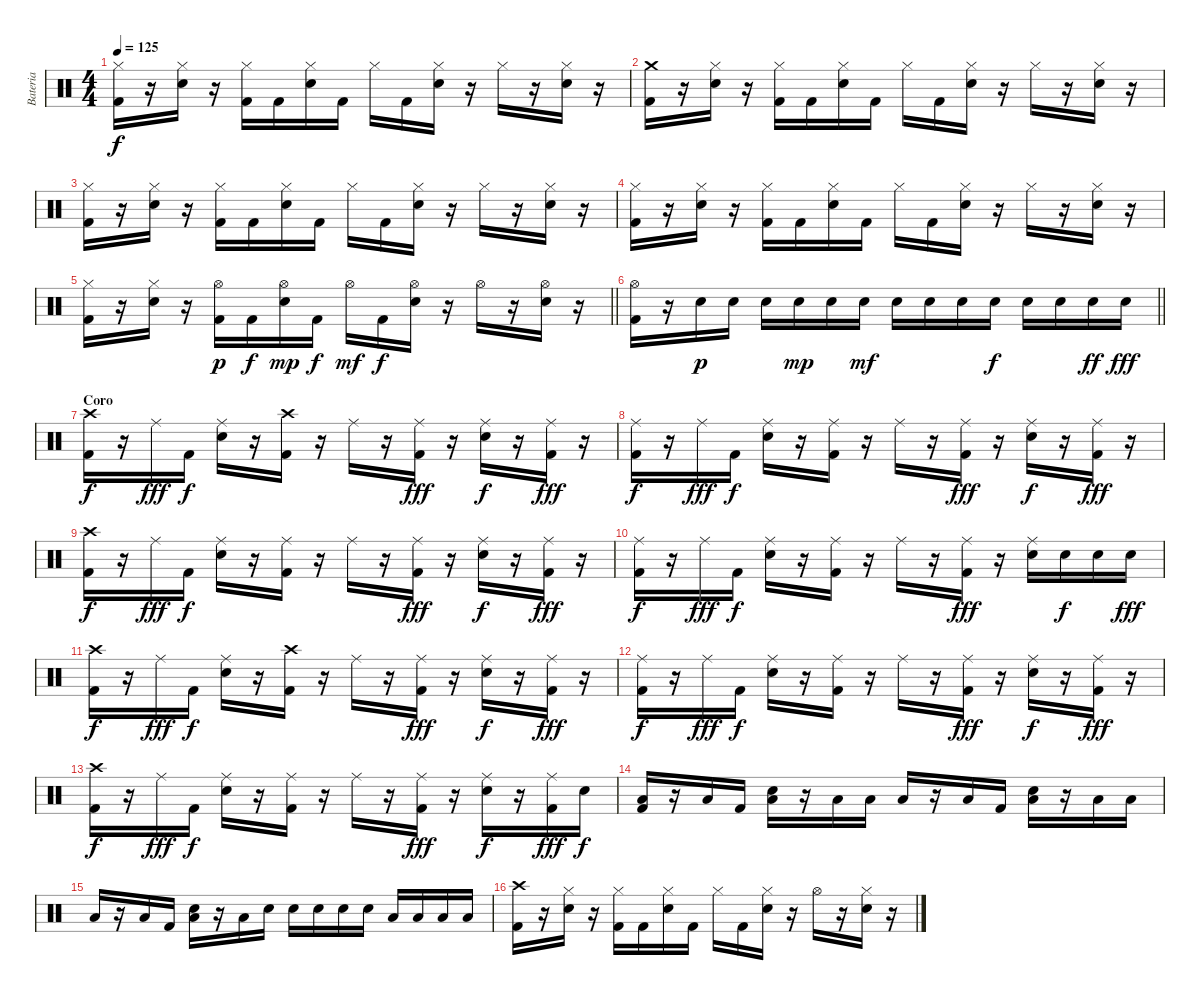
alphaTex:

\track ("Bateria" "Bateria") {instrument percussion}
\staff {score}
\articulation defaults
\ts (4 4)
\tempo 125
\clef neutral
\ks c
("Hi-Hat (closed)" "Kick (hit) 2").16{dy f} r.16 ("Hi-Hat (closed)" "Electric Snare (hit)").16 r.16 ("Hi-Hat (closed)" "Kick (hit) 2").16 "Kick (hit) 2".16 ("Hi-Hat (closed)" "Electric Snare (hit)").16 "Kick (hit) 2".16 "Hi-Hat (closed)".16 "Kick (hit) 2".16 ("Hi-Hat (closed)" "Electric Snare (hit)").16 r.16 "Hi-Hat (closed)".16 r.16 ("Hi-Hat (closed)" "Electric Snare (hit)").16 r.16 |
("Crash medium (hit)" "Kick (hit) 2").16 r.16 ("Hi-Hat (closed)" "Electric Snare (hit)").16 r.16 ("Hi-Hat (closed)" "Kick (hit) 2").16 "Kick (hit) 2".16 ("Hi-Hat (closed)" "Electric Snare (hit)").16 "Kick (hit) 2".16 "Hi-Hat (closed)".16 "Kick (hit) 2".16 ("Hi-Hat (closed)" "Electric Snare (hit)").16 r.16 "Hi-Hat (closed)".16 r.16 ("Hi-Hat (closed)" "Electric Snare (hit)").16 r.16 |
("Hi-Hat (closed)" "Kick (hit) 2").16 r.16 ("Hi-Hat (closed)" "Electric Snare (hit)").16 r.16 ("Hi-Hat (closed)" "Kick (hit) 2").16 "Kick (hit) 2".16 ("Hi-Hat (closed)" "Electric Snare (hit)").16 "Kick (hit) 2".16 "Hi-Hat (closed)".16 "Kick (hit) 2".16 ("Hi-Hat (closed)" "Electric Snare (hit)").16 r.16 "Hi-Hat (closed)".16 r.16 ("Hi-Hat (closed)" "Electric Snare (hit)").16 r.16 |
("Hi-Hat (closed)" "Kick (hit) 2").16 r.16 ("Hi-Hat (closed)" "Electric Snare (hit)").16 r.16 ("Hi-Hat (closed)" "Kick (hit) 2").16 "Kick (hit) 2".16 ("Hi-Hat (closed)" "Electric Snare (hit)").16 "Kick (hit) 2".16 "Hi-Hat (closed)".16 "Kick (hit) 2".16 ("Hi-Hat (closed)" "Electric Snare (hit)").16 r.16 "Hi-Hat (closed)".16 r.16 ("Hi-Hat (closed)" "Electric Snare (hit)").16 r.16 |
\barLineRight lightlight
("Hi-Hat (closed)" "Kick (hit) 2").16 r.16 ("Hi-Hat (closed)" "Electric Snare (hit)").16 r.16 ("Hi-Hat (open)" "Kick (hit) 2").16{dy p} "Kick (hit) 2".16{dy f} ("Hi-Hat (open)" "Electric Snare (hit)").16{dy mp} "Kick (hit) 2".16{dy f} "Hi-Hat (open)".16{dy mf} "Kick (hit) 2".16{dy f} ("Hi-Hat (open)" "Electric Snare (hit)").16 r.16 "Hi-Hat (open)".16 r.16 ("Hi-Hat (open)" "Electric Snare (hit)").16 r.16 |
\barLineRight lightlight
("Hi-Hat (open)" "Kick (hit) 2").16 r.16 "Electric Snare (hit)".16{dy p} "Electric Snare (hit)".16 "Electric Snare (hit)".16 "Electric Snare (hit)".16{dy mp} "Electric Snare (hit)".16 "Electric Snare (hit)".16{dy mf} "Electric Snare (hit)".16 "Electric Snare (hit)".16 "Electric Snare (hit)".16 "Electric Snare (hit)".16{dy f} "Electric Snare (hit)".16 "Electric Snare (hit)".16 "Electric Snare (hit)".16{dy ff} "Electric Snare (hit)".16{dy fff} |
\section ("" "Coro")
("Crash high (hit)" "Kick (hit) 2").16{dy f} r.16 "Ride (middle)".16{dy fff} "Kick (hit) 2".16{dy f} ("Ride (middle)" "Electric Snare (hit)").16 r.16 ("Crash high (hit)" "Kick (hit) 2").16 r.16 "Ride (middle)".16 r.16 ("Ride (middle)" "Kick (hit) 2").16{dy fff} r.16 ("Ride (middle)" "Electric Snare (hit)").16{dy f} r.16 ("Ride (middle)" "Kick (hit) 2").16{dy fff} r.16 |
("Ride (middle)" "Kick (hit) 2").16{dy f} r.16 "Ride (middle)".16{dy fff} "Kick (hit) 2".16{dy f} ("Ride (middle)" "Electric Snare (hit)").16 r.16 ("Ride (middle)" "Kick (hit) 2").16 r.16 "Ride (middle)".16 r.16 ("Ride (middle)" "Kick (hit) 2").16{dy fff} r.16 ("Ride (middle)" "Electric Snare (hit)").16{dy f} r.16 ("Ride (middle)" "Kick (hit) 2").16{dy fff} r.16 |
("Crash high (hit)" "Kick (hit) 2").16{dy f} r.16 "Ride (middle)".16{dy fff} "Kick (hit) 2".16{dy f} ("Ride (middle)" "Electric Snare (hit)").16 r.16 ("Ride (middle)" "Kick (hit) 2").16 r.16 "Ride (middle)".16 r.16 ("Ride (middle)" "Kick (hit) 2").16{dy fff} r.16 ("Ride (middle)" "Electric Snare (hit)").16{dy f} r.16 ("Ride (middle)" "Kick (hit) 2").16{dy fff} r.16 |
("Ride (middle)" "Kick (hit) 2").16{dy f} r.16 "Ride (middle)".16{dy fff} "Kick (hit) 2".16{dy f} ("Ride (middle)" "Electric Snare (hit)").16 r.16 ("Ride (middle)" "Kick (hit) 2").16 r.16 "Ride (middle)".16 r.16 ("Ride (middle)" "Kick (hit) 2").16{dy fff} r.16 ("Ride (middle)" "Electric Snare (hit)").16 "Electric Snare (hit)".16{dy f} "Electric Snare (hit)".16 "Electric Snare (hit)".16{dy fff} |
("Crash high (hit)" "Kick (hit) 2").16{dy f} r.16 "Ride (middle)".16{dy fff} "Kick (hit) 2".16{dy f} ("Ride (middle)" "Electric Snare (hit)").16 r.16 ("Crash high (hit)" "Kick (hit) 2").16 r.16 "Ride (middle)".16 r.16 ("Ride (middle)" "Kick (hit) 2").16{dy fff} r.16 ("Ride (middle)" "Electric Snare (hit)").16{dy f} r.16 ("Ride (middle)" "Kick (hit) 2").16{dy fff} r.16 |
("Ride (middle)" "Kick (hit) 2").16{dy f} r.16 "Ride (middle)".16{dy fff} "Kick (hit) 2".16{dy f} ("Ride (middle)" "Electric Snare (hit)").16 r.16 ("Ride (middle)" "Kick (hit) 2").16 r.16 "Ride (middle)".16 r.16 ("Ride (middle)" "Kick (hit) 2").16{dy fff} r.16 ("Ride (middle)" "Electric Snare (hit)").16{dy f} r.16 ("Ride (middle)" "Kick (hit) 2").16{dy fff} r.16 |
("Crash high (hit)" "Kick (hit) 2").16{dy f} r.16 "Ride (middle)".16{dy fff} "Kick (hit) 2".16{dy f} ("Ride (middle)" "Electric Snare (hit)").16 r.16 ("Ride (middle)" "Kick (hit) 2").16 r.16 "Ride (middle)".16 r.16 ("Ride (middle)" "Kick (hit) 2").16{dy fff} r.16 ("Ride (middle)" "Electric Snare (hit)").16{dy f} r.16 ("Ride (middle)" "Kick (hit) 2").16{dy fff} "Electric Snare (hit)".16{dy f} |
("Low Floor Tom (hit)" "Kick (hit) 2").16 r.16 "Low Floor Tom (hit)".16 "Kick (hit) 2".16 ("Low Floor Tom (hit)" "Electric Snare (hit)").16 r.16 "Low Floor Tom (hit)".16 "Low Tom (hit)".16 "Low Floor Tom (hit)".16 r.16 "Low Floor Tom (hit)".16 "Kick (hit) 2".16 ("Low Floor Tom (hit)" "Electric Snare (hit)").16 r.16 "Low Floor Tom (hit)".16 "Low Tom (hit)".16 |
"Low Floor Tom (hit)".16 r.16 "Low Floor Tom (hit)".16 "Kick (hit) 2".16 ("Low Floor Tom (hit)" "Electric Snare (hit)").16 r.16 "Low Floor Tom (hit)".16 "Electric Snare (hit)".16 "Electric Snare (hit)".16 "Electric Snare (hit)".16 "Electric Snare (hit)".16 "Electric Snare (hit)".16 "Low Tom (hit)".16 "Low Tom (hit)".16 "Low Floor Tom (hit)".16 "Low Floor Tom (hit)".16 |
("Crash high (hit)" "Kick (hit) 2").16 r.16 ("Hi-Hat (closed)" "Electric Snare (hit)").16 r.16 ("Hi-Hat (closed)" "Kick (hit) 2").16 "Kick (hit) 2".16 ("Hi-Hat (closed)" "Electric Snare (hit)").16 "Kick (hit) 2".16 "Hi-Hat (closed)".16 "Kick (hit) 2".16 ("Hi-Hat (closed)" "Electric Snare (hit)").16 r.16 "Hi-Hat (open)".16 r.16 ("Hi-Hat (closed)" "Electric Snare (hit)").16 r.16
